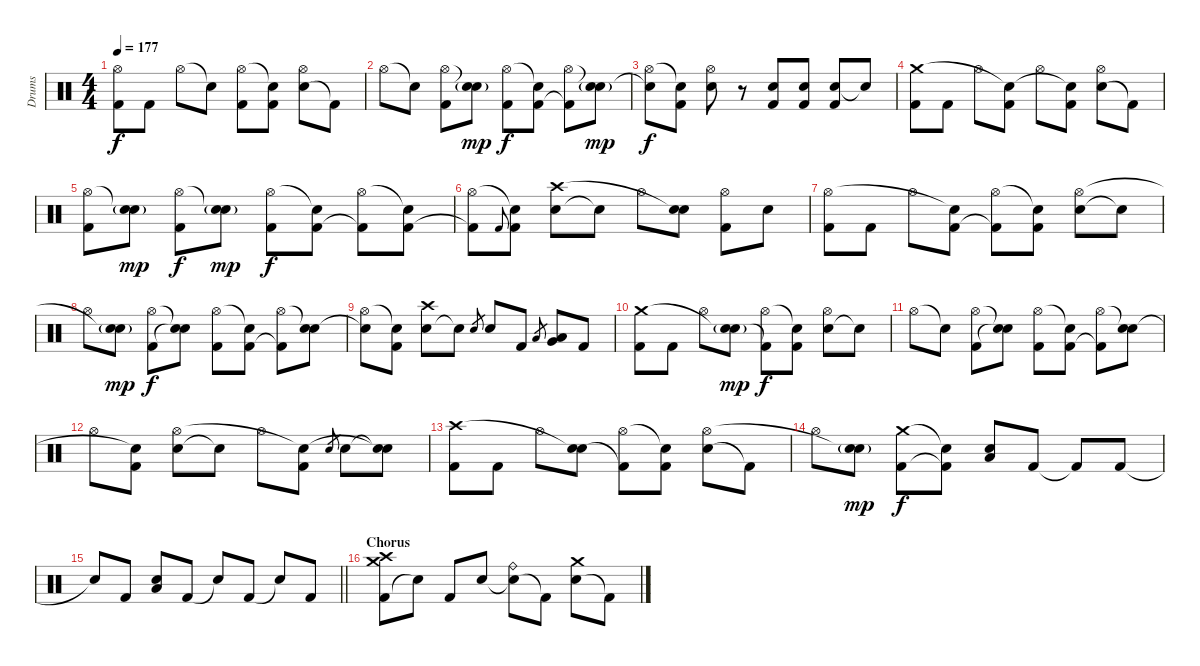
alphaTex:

\track ("Drums" "Drums") {instrument percussion}
\staff {score}
\articulation defaults
\ts (4 4)
\tempo 177
\clef neutral
\ks c
("Kick (hit) 2" "Hi-Hat (open)").8{dy f} "Kick (hit) 2".8 "Hi-Hat (open)".8 "Snare (hit)"{t}.8 ("Kick (hit) 2" "Hi-Hat (open)").8 ("Kick (hit) 2" "Snare (hit)"{t}).8 ("Electric Snare (hit)" "Hi-Hat (open)").8 "Kick (hit) 2"{t}.8 |
"Hi-Hat (open)".8 "Snare (hit)"{t}.8 ("Kick (hit) 2" "Hi-Hat (open)").8 ("Electric Snare (hit)"{g} "Snare (hit)"{t}).8{dy mp} ("Kick (hit) 2" "Hi-Hat (open)").8{dy f} ("Kick (hit) 2" "Snare (hit)"{t}).8 ("Kick (hit) 2"{t} "Hi-Hat (open)").8 ("Electric Snare (hit)"{g} "Snare (hit)"{t}).8{dy mp} |
("Electric Snare (hit)"{t} "Hi-Hat (open)").8{dy f} ("Kick (hit) 2" "Snare (hit)"{t}).8 ("Electric Snare (hit)" "Hi-Hat (open)").8 r.8 ("Electric Snare (hit)" "Kick (hit) 2").8 ("Electric Snare (hit)" "Kick (hit) 2").8 ("Electric Snare (hit)" "Kick (hit) 2").8 "Electric Snare (hit)"{t}.8 |
("Kick (hit) 2" "Crash medium (hit)").8 "Kick (hit) 2".8 "Hi-Hat (open)".8 ("Kick (hit) 2" "Snare (hit)"{t}).8 "Hi-Hat (open)".8 ("Kick (hit) 2" "Snare (hit)"{t}).8 ("Electric Snare (hit)" "Hi-Hat (open)").8 "Kick (hit) 2"{t}.8 |
("Kick (hit) 2" "Hi-Hat (open)").8 ("Electric Snare (hit)"{g} "Snare (hit)"{t}).8{dy mp} ("Kick (hit) 2" "Hi-Hat (open)").8{dy f} ("Electric Snare (hit)"{g} "Snare (hit)"{t}).8{dy mp} ("Kick (hit) 2" "Hi-Hat (open)").8{dy f} ("Kick (hit) 2" "Snare (hit)"{t}).8 ("Kick (hit) 2"{t} "Hi-Hat (open)").8 ("Kick (hit) 2" "Snare (hit)"{t}).8 |
("Kick (hit) 2"{t} "Hi-Hat (open)").8 "Kick (hit) 2".8{gr onbeat} ("Kick (hit) 2" "Snare (hit)"{t}).8 ("Electric Snare (hit)" "Crash high (hit)").8 "Snare (hit)"{t}.8 "Hi-Hat (open)".8 ("Electric Snare (hit)" "Snare (hit)"{t}).8 ("Kick (hit) 2" "Hi-Hat (open)").8 "Electric Snare (hit)".8 |
("Kick (hit) 2" "Hi-Hat (open)").8 "Kick (hit) 2".8 "Hi-Hat (open)".8 ("Kick (hit) 2" "Snare (hit)"{t}).8 ("Kick (hit) 2"{t} "Hi-Hat (open)").8 ("Kick (hit) 2" "Snare (hit)"{t}).8 ("Electric Snare (hit)" "Hi-Hat (open)").8 "Snare (hit)"{t}.8 |
"Hi-Hat (open)".8 ("Electric Snare (hit)"{g} "Snare (hit)"{t}).8{dy mp} ("Kick (hit) 2" "Hi-Hat (open)").8{dy f} ("Electric Snare (hit)"{t} "Snare (hit)"{t}).8 ("Kick (hit) 2" "Hi-Hat (open)").8 ("Kick (hit) 2" "Snare (hit)"{t}).8 ("Kick (hit) 2"{t} "Hi-Hat (open)").8 ("Electric Snare (hit)" "Snare (hit)"{t}).8 |
("Electric Snare (hit)"{t} "Hi-Hat (open)").8 ("Kick (hit) 2" "Snare (hit)"{t}).8 ("Electric Snare (hit)" "Crash high (hit)").8 "Snare (hit)"{t}.8 "Electric Snare (hit)".8{gr} "Electric Snare (hit)".8 "Kick (hit) 2".8 "Low Tom (hit)".8{gr} ("Low Tom (hit)" "Very Low Tom (hit)").8 "Kick (hit) 2".8 |
("Kick (hit) 2" "Crash medium (hit)").8 "Kick (hit) 2".8 "Hi-Hat (open)".8 ("Electric Snare (hit)"{g} "Snare (hit)"{t}).8{dy mp} ("Kick (hit) 2"{t} "Hi-Hat (open)").8{dy f} ("Kick (hit) 2" "Snare (hit)"{t}).8 ("Electric Snare (hit)" "Hi-Hat (open)").8 "Electric Snare (hit)"{t}.8 |
"Hi-Hat (open)".8 "Snare (hit)"{t}.8 ("Kick (hit) 2" "Hi-Hat (open)").8 ("Electric Snare (hit)"{t} "Snare (hit)"{t}).8 ("Kick (hit) 2" "Hi-Hat (open)").8 ("Kick (hit) 2" "Snare (hit)"{t}).8 ("Kick (hit) 2"{t} "Hi-Hat (open)").8 ("Electric Snare (hit)" "Snare (hit)"{t}).8 |
"Hi-Hat (open)".8 ("Kick (hit) 2" "Snare (hit)"{t}).8 ("Electric Snare (hit)" "Hi-Hat (open)").8 "Snare (hit)"{t}.8 "Hi-Hat (open)".8 ("Kick (hit) 2" "Snare (hit)"{t}).8 "Electric Snare (hit)".8{gr} "Electric Snare (hit)".8 ("Electric Snare (hit)"{t} "Snare (hit)"{t}).8 |
("Kick (hit) 2" "Crash high (hit)").8 "Kick (hit) 2".8 "Hi-Hat (open)".8 ("Electric Snare (hit)" "Snare (hit)"{t}).8 ("Kick (hit) 2"{t} "Hi-Hat (open)").8 ("Kick (hit) 2" "Snare (hit)"{t}).8 ("Electric Snare (hit)" "Hi-Hat (open)").8 "Kick (hit) 2"{t}.8 |
"Hi-Hat (open)".8 ("Electric Snare (hit)"{g} "Snare (hit)"{t}).8{dy mp} ("Kick (hit) 2" "Crash medium (hit)").8{dy f} ("Kick (hit) 2"{t} "Snare (hit)"{t}).8 ("Electric Snare (hit)" "Low Floor Tom (hit)").8 "Kick (hit) 2".8 "Kick (hit) 2"{t}.8 "Kick (hit) 2".8 |
\barLineRight lightlight "Snare (hit)"{t}.8 "Kick (hit) 2".8
("Electric Snare (hit)" "Low Floor Tom (hit)").8 "Kick (hit) 2".8 "Snare (hit)"{t}.8 "Kick (hit) 2".8 "Snare (hit)"{t}.8 "Kick (hit) 2".8 |
\section ("" "Chorus")
("Kick (hit) 2" "Crash medium (hit)" "Crash high (hit)").8 "Snare (hit)"{t}.8 "Kick (hit) 2".8 "Electric Snare (hit)".8 ("Snare (hit)"{t} "Ride (bell)").8 "Kick (hit) 2"{t}.8 ("Electric Snare (hit)" "Crash medium (hit)").8 "Kick (hit) 2"{t}.8
